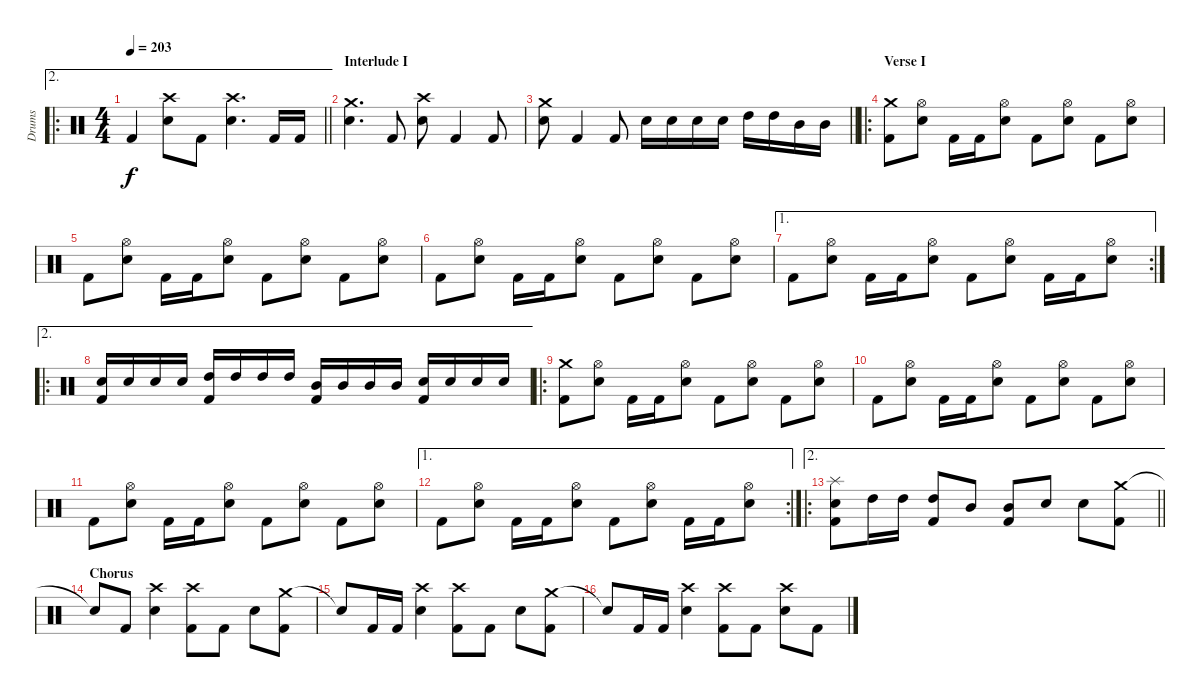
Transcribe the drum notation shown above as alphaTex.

\track ("Drums" "Drums") {instrument percussion}
\staff {score}
\articulation defaults
\ae 2
\ro
\ts (4 4)
\tempo 203
\clef neutral
\barLineRight lightlight
\ks c "Kick (hit) 2".4{dy f}
("Crash high (hit)" "Electric Snare (hit)").8 "Kick (hit) 2".8 ("Crash high (hit)" "Electric Snare (hit)").4{d} "Kick (hit) 2".16 "Kick (hit) 2".16 |
\section ("" "Interlude I")
("Crash medium (hit)" "Electric Snare (hit)").4{d} "Kick (hit) 2".8 ("Crash high (hit)" "Electric Snare (hit)").8 "Kick (hit) 2".4 "Kick (hit) 2".8 |
\barLineRight lightlight
("Crash medium (hit)" "Electric Snare (hit)").8 "Kick (hit) 2".4 "Kick (hit) 2".8 "Electric Snare (hit)".16 "Electric Snare (hit)".16 "Electric Snare (hit)".16 "Electric Snare (hit)".16 "High Tom (hit)".16 "High Tom (hit)".16 "Mid Tom (hit)".16 "Mid Tom (hit)".16 |
\ro
\section ("" "Verse I")
("Crash medium (hit)" "Kick (hit) 2").8 ("Hi-Hat (open)" "Electric Snare (hit)").8 "Kick (hit) 2".16 "Kick (hit) 2".16 ("Hi-Hat (open)" "Electric Snare (hit)").8 "Kick (hit) 2".8 ("Hi-Hat (open)" "Electric Snare (hit)").8 "Kick (hit) 2".8 ("Hi-Hat (open)" "Electric Snare (hit)").8 |
"Kick (hit) 2".8 ("Hi-Hat (open)" "Electric Snare (hit)").8 "Kick (hit) 2".16 "Kick (hit) 2".16 ("Hi-Hat (open)" "Electric Snare (hit)").8 "Kick (hit) 2".8 ("Hi-Hat (open)" "Electric Snare (hit)").8 "Kick (hit) 2".8 ("Hi-Hat (open)" "Electric Snare (hit)").8 |
"Kick (hit) 2".8 ("Hi-Hat (open)" "Electric Snare (hit)").8 "Kick (hit) 2".16 "Kick (hit) 2".16 ("Hi-Hat (open)" "Electric Snare (hit)").8 "Kick (hit) 2".8 ("Hi-Hat (open)" "Electric Snare (hit)").8 "Kick (hit) 2".8 ("Hi-Hat (open)" "Electric Snare (hit)").8 |
\ae 1
\rc 2 "Kick (hit) 2".8
("Hi-Hat (open)" "Electric Snare (hit)").8 "Kick (hit) 2".16 "Kick (hit) 2".16 ("Hi-Hat (open)" "Electric Snare (hit)").8 "Kick (hit) 2".8 ("Hi-Hat (open)" "Electric Snare (hit)").8 "Kick (hit) 2".16 "Kick (hit) 2".16 ("Hi-Hat (open)" "Electric Snare (hit)").8 |
\ae 2
\ro
("Electric Snare (hit)" "Kick (hit) 2").16 "Electric Snare (hit)".16 "Electric Snare (hit)".16 "Electric Snare (hit)".16 ("High Tom (hit)" "Kick (hit) 2").16 "High Tom (hit)".16 "High Tom (hit)".16 "High Tom (hit)".16 ("Mid Tom (hit)" "Kick (hit) 2").16 "Mid Tom (hit)".16 "Mid Tom (hit)".16 "Mid Tom (hit)".16 ("Electric Snare (hit)" "Kick (hit) 2").16 "Electric Snare (hit)".16 "Electric Snare (hit)".16 "Electric Snare (hit)".16 |
\ro
("Crash medium (hit)" "Kick (hit) 2").8 ("Hi-Hat (open)" "Electric Snare (hit)").8 "Kick (hit) 2".16 "Kick (hit) 2".16 ("Hi-Hat (open)" "Electric Snare (hit)").8 "Kick (hit) 2".8 ("Hi-Hat (open)" "Electric Snare (hit)").8 "Kick (hit) 2".8 ("Hi-Hat (open)" "Electric Snare (hit)").8 |
"Kick (hit) 2".8 ("Hi-Hat (open)" "Electric Snare (hit)").8 "Kick (hit) 2".16 "Kick (hit) 2".16 ("Hi-Hat (open)" "Electric Snare (hit)").8 "Kick (hit) 2".8 ("Hi-Hat (open)" "Electric Snare (hit)").8 "Kick (hit) 2".8 ("Hi-Hat (open)" "Electric Snare (hit)").8 |
"Kick (hit) 2".8 ("Hi-Hat (open)" "Electric Snare (hit)").8 "Kick (hit) 2".16 "Kick (hit) 2".16 ("Hi-Hat (open)" "Electric Snare (hit)").8 "Kick (hit) 2".8 ("Hi-Hat (open)" "Electric Snare (hit)").8 "Kick (hit) 2".8 ("Hi-Hat (open)" "Electric Snare (hit)").8 |
\ae 1
\rc 2 "Kick (hit) 2".8
("Hi-Hat (open)" "Electric Snare (hit)").8 "Kick (hit) 2".16 "Kick (hit) 2".16 ("Hi-Hat (open)" "Electric Snare (hit)").8 "Kick (hit) 2".8 ("Hi-Hat (open)" "Electric Snare (hit)").8 "Kick (hit) 2".16 "Kick (hit) 2".16 ("Hi-Hat (open)" "Electric Snare (hit)").8 |
\ae 2
\ro
\barLineRight lightlight
("Splash (hit)" "Electric Snare (hit)" "Kick (hit) 2").8 "High Tom (hit)".16 "High Tom (hit)".16 ("High Tom (hit)" "Kick (hit) 2").8 "Mid Tom (hit)".8 ("Mid Tom (hit)" "Kick (hit) 2").8 "Electric Snare (hit)".8 "Electric Snare (hit)".8 ("Crash medium (hit)" "Kick (hit) 2").8 |
\section ("" "Chorus")
"Snare (hit)"{t}.8 "Kick (hit) 2".8 ("Crash high (hit)" "Electric Snare (hit)").4 ("Crash high (hit)" "Kick (hit) 2").8 "Kick (hit) 2".8 "Electric Snare (hit)".8 ("Crash medium (hit)" "Kick (hit) 2").8 |
"Snare (hit)"{t}.8 "Kick (hit) 2".16 "Kick (hit) 2".16 ("Crash high (hit)" "Electric Snare (hit)").4 ("Crash high (hit)" "Kick (hit) 2").8 "Kick (hit) 2".8 "Electric Snare (hit)".8 ("Crash medium (hit)" "Kick (hit) 2").8 |
"Snare (hit)"{t}.8 "Kick (hit) 2".16 "Kick (hit) 2".16 ("Crash high (hit)" "Electric Snare (hit)").4 ("Crash high (hit)" "Kick (hit) 2").8 "Kick (hit) 2".8 ("Crash high (hit)" "Electric Snare (hit)").8 "Kick (hit) 2".8
